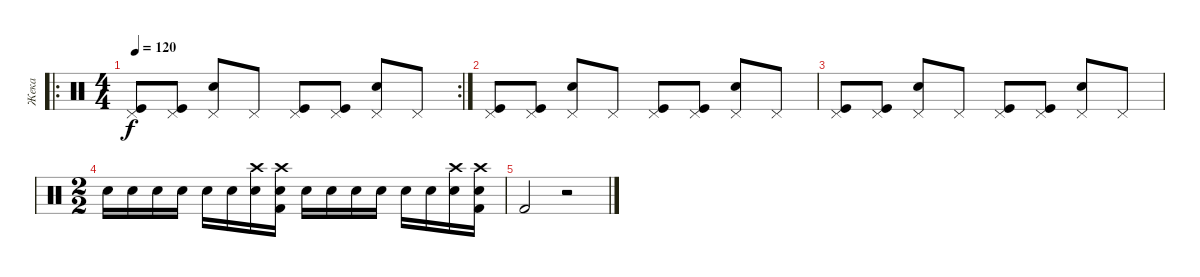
\track ("Жека" "Жека") {solo instrument percussion}
\staff {score}
\articulation defaults
\ro
\rc 2
\ts (4 4)
\tempo 120
\clef neutral
\ks c
("Kick (hit)" "Pedal Hi-Hat (hit)").8{dy f} ("Kick (hit)" "Pedal Hi-Hat (hit)").8 ("Pedal Hi-Hat (hit)" "Snare (hit) 2").8 "Pedal Hi-Hat (hit)".8 ("Kick (hit)" "Pedal Hi-Hat (hit)").8 ("Kick (hit)" "Pedal Hi-Hat (hit)").8 ("Pedal Hi-Hat (hit)" "Snare (hit) 2").8 "Pedal Hi-Hat (hit)".8 |
("Kick (hit)" "Pedal Hi-Hat (hit)").8 ("Kick (hit)" "Pedal Hi-Hat (hit)").8 ("Pedal Hi-Hat (hit)" "Snare (hit) 2").8 "Pedal Hi-Hat (hit)".8 ("Kick (hit)" "Pedal Hi-Hat (hit)").8 ("Kick (hit)" "Pedal Hi-Hat (hit)").8 ("Pedal Hi-Hat (hit)" "Snare (hit) 2").8 "Pedal Hi-Hat (hit)".8 |
("Kick (hit)" "Pedal Hi-Hat (hit)").8 ("Kick (hit)" "Pedal Hi-Hat (hit)").8 ("Pedal Hi-Hat (hit)" "Snare (hit) 2").8 "Pedal Hi-Hat (hit)".8 ("Kick (hit)" "Pedal Hi-Hat (hit)").8 ("Kick (hit)" "Pedal Hi-Hat (hit)").8 ("Pedal Hi-Hat (hit)" "Snare (hit) 2").8 "Pedal Hi-Hat (hit)".8 |
\ts (2 2)
"Snare (hit) 2".16 "Snare (hit) 2".16 "Snare (hit) 2".16 "Snare (hit) 2".16 "Snare (hit) 2".16 "Snare (hit) 2".16 ("Crash high (hit)" "Snare (hit) 2").16 ("Crash high (hit)" "Kick (hit) 2" "Snare (hit) 2").16 "Snare (hit) 2".16 "Snare (hit) 2".16 "Snare (hit) 2".16 "Snare (hit) 2".16 "Snare (hit) 2".16 "Snare (hit) 2".16 ("Crash high (hit)" "Snare (hit) 2").16 ("Crash high (hit)" "Kick (hit) 2" "Snare (hit) 2").16 |
"Kick (hit) 2".2 r.2
